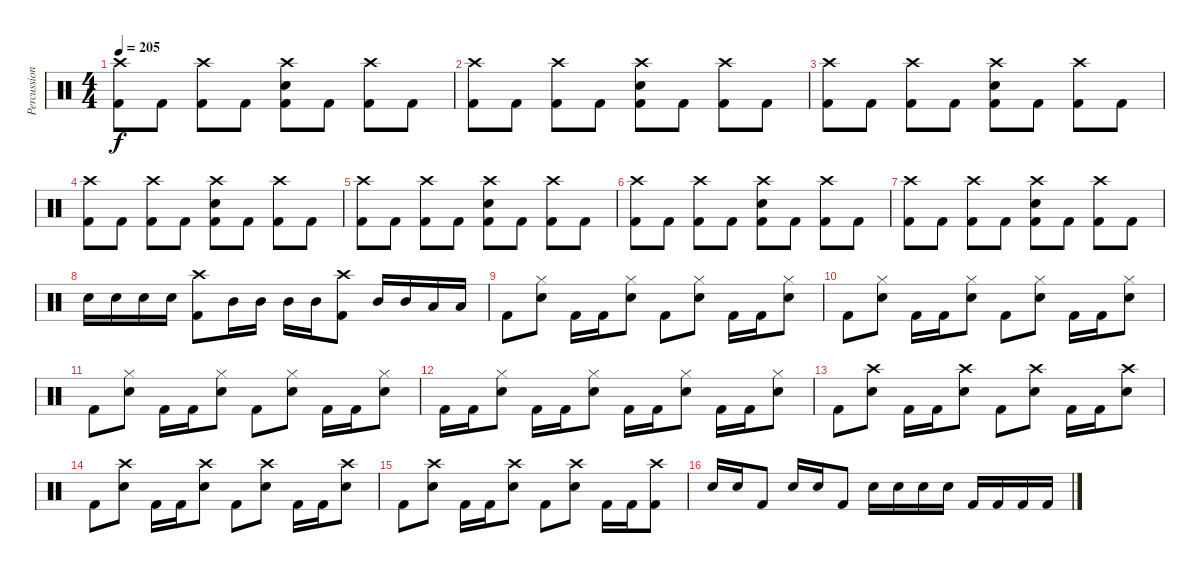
\track ("Percussion" "Percussion") {instrument percussion}
\staff {score}
\articulation defaults
\ts (4 4)
\tempo 205
\clef neutral
\ks c
("Crash high (hit)" "Kick (hit) 2").8{dy f} "Kick (hit) 2".8 ("Crash high (hit)" "Kick (hit) 2").8 "Kick (hit) 2".8 ("Crash high (hit)" "Electric Snare (hit)" "Kick (hit) 2").8 "Kick (hit) 2".8 ("Crash high (hit)" "Kick (hit) 2").8 "Kick (hit) 2".8 |
("Crash high (hit)" "Kick (hit) 2").8 "Kick (hit) 2".8 ("Crash high (hit)" "Kick (hit) 2").8 "Kick (hit) 2".8 ("Crash high (hit)" "Electric Snare (hit)" "Kick (hit) 2").8 "Kick (hit) 2".8 ("Crash high (hit)" "Kick (hit) 2").8 "Kick (hit) 2".8 |
("Crash high (hit)" "Kick (hit) 2").8 "Kick (hit) 2".8 ("Crash high (hit)" "Kick (hit) 2").8 "Kick (hit) 2".8 ("Crash high (hit)" "Electric Snare (hit)" "Kick (hit) 2").8 "Kick (hit) 2".8 ("Crash high (hit)" "Kick (hit) 2").8 "Kick (hit) 2".8 |
("Crash high (hit)" "Kick (hit) 2").8 "Kick (hit) 2".8 ("Crash high (hit)" "Kick (hit) 2").8 "Kick (hit) 2".8 ("Crash high (hit)" "Electric Snare (hit)" "Kick (hit) 2").8 "Kick (hit) 2".8 ("Crash high (hit)" "Kick (hit) 2").8 "Kick (hit) 2".8 |
("Crash high (hit)" "Kick (hit) 2").8 "Kick (hit) 2".8 ("Crash high (hit)" "Kick (hit) 2").8 "Kick (hit) 2".8 ("Crash high (hit)" "Electric Snare (hit)" "Kick (hit) 2").8 "Kick (hit) 2".8 ("Crash high (hit)" "Kick (hit) 2").8 "Kick (hit) 2".8 |
("Crash high (hit)" "Kick (hit) 2").8 "Kick (hit) 2".8 ("Crash high (hit)" "Kick (hit) 2").8 "Kick (hit) 2".8 ("Crash high (hit)" "Electric Snare (hit)" "Kick (hit) 2").8 "Kick (hit) 2".8 ("Crash high (hit)" "Kick (hit) 2").8 "Kick (hit) 2".8 |
("Crash high (hit)" "Kick (hit) 2").8 "Kick (hit) 2".8 ("Crash high (hit)" "Kick (hit) 2").8 "Kick (hit) 2".8 ("Crash high (hit)" "Electric Snare (hit)" "Kick (hit) 2").8 "Kick (hit) 2".8 ("Crash high (hit)" "Kick (hit) 2").8 "Kick (hit) 2".8 |
"Electric Snare (hit)".16 "Electric Snare (hit)".16 "Electric Snare (hit)".16 "Electric Snare (hit)".16 ("Crash high (hit)" "Kick (hit) 2").8 "Mid Tom (hit)".16 "Mid Tom (hit)".16 "Mid Tom (hit)".16 "Mid Tom (hit)".16 ("Crash high (hit)" "Kick (hit) 2").8 "Mid Tom (hit)".16 "Mid Tom (hit)".16 "Low Floor Tom (hit)".16 "Low Floor Tom (hit)".16 |
"Kick (hit) 2".8 ("Hi-Hat (closed)" "Electric Snare (hit)").8 "Kick (hit) 2".16 "Kick (hit) 2".16 ("Hi-Hat (closed)" "Electric Snare (hit)").8 "Kick (hit) 2".8 ("Hi-Hat (closed)" "Electric Snare (hit)").8 "Kick (hit) 2".16 "Kick (hit) 2".16 ("Hi-Hat (closed)" "Electric Snare (hit)").8 |
"Kick (hit) 2".8 ("Hi-Hat (closed)" "Electric Snare (hit)").8 "Kick (hit) 2".16 "Kick (hit) 2".16 ("Hi-Hat (closed)" "Electric Snare (hit)").8 "Kick (hit) 2".8 ("Hi-Hat (closed)" "Electric Snare (hit)").8 "Kick (hit) 2".16 "Kick (hit) 2".16 ("Hi-Hat (closed)" "Electric Snare (hit)").8 |
"Kick (hit) 2".8 ("Hi-Hat (closed)" "Electric Snare (hit)").8 "Kick (hit) 2".16 "Kick (hit) 2".16 ("Hi-Hat (closed)" "Electric Snare (hit)").8 "Kick (hit) 2".8 ("Hi-Hat (closed)" "Electric Snare (hit)").8 "Kick (hit) 2".16 "Kick (hit) 2".16 ("Hi-Hat (closed)" "Electric Snare (hit)").8 |
"Kick (hit) 2".16 "Kick (hit) 2".16 ("Hi-Hat (closed)" "Electric Snare (hit)").8 "Kick (hit) 2".16 "Kick (hit) 2".16 ("Hi-Hat (closed)" "Electric Snare (hit)").8 "Kick (hit) 2".16 "Kick (hit) 2".16 ("Hi-Hat (closed)" "Electric Snare (hit)").8 "Kick (hit) 2".16 "Kick (hit) 2".16 ("Hi-Hat (closed)" "Electric Snare (hit)").8 |
"Kick (hit) 2".8 ("Crash high (hit)" "Electric Snare (hit)").8 "Kick (hit) 2".16 "Kick (hit) 2".16 ("Crash high (hit)" "Electric Snare (hit)").8 "Kick (hit) 2".8 ("Crash high (hit)" "Electric Snare (hit)").8 "Kick (hit) 2".16 "Kick (hit) 2".16 ("Crash high (hit)" "Electric Snare (hit)").8 |
"Kick (hit) 2".8 ("Crash high (hit)" "Electric Snare (hit)").8 "Kick (hit) 2".16 "Kick (hit) 2".16 ("Crash high (hit)" "Electric Snare (hit)").8 "Kick (hit) 2".8 ("Crash high (hit)" "Electric Snare (hit)").8 "Kick (hit) 2".16 "Kick (hit) 2".16 ("Crash high (hit)" "Electric Snare (hit)").8 |
"Kick (hit) 2".8 ("Crash high (hit)" "Electric Snare (hit)").8 "Kick (hit) 2".16 "Kick (hit) 2".16 ("Crash high (hit)" "Electric Snare (hit)").8 "Kick (hit) 2".8 ("Crash high (hit)" "Electric Snare (hit)").8 "Kick (hit) 2".16 "Kick (hit) 2".16 ("Crash high (hit)" "Kick (hit) 2").8 |
"Electric Snare (hit)".16 "Electric Snare (hit)".16 "Kick (hit) 2".8 "Electric Snare (hit)".16 "Electric Snare (hit)".16 "Kick (hit) 2".8 "Electric Snare (hit)".16 "Electric Snare (hit)".16 "Electric Snare (hit)".16 "Electric Snare (hit)".16 "Kick (hit) 2".16 "Kick (hit) 2".16 "Kick (hit) 2".16 "Kick (hit) 2".16
